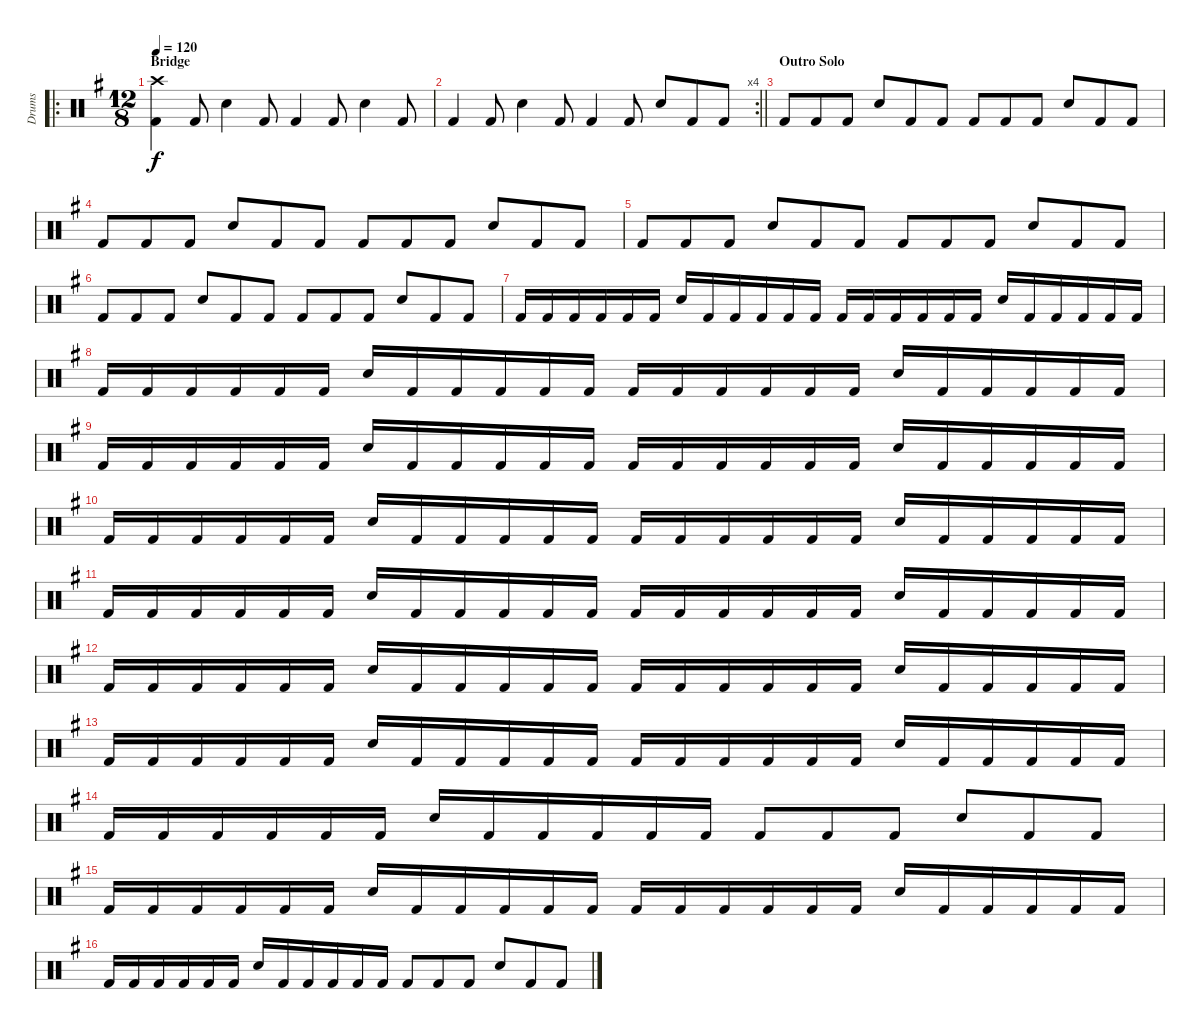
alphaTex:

\track ("Drums" "Drums") {instrument percussion}
\staff {score}
\articulation defaults
\ro
\ts (12 8)
\section ("" "Bridge")
\tempo 120
\clef neutral
\ks eminor
("Kick (hit) 2" "Crash high (hit)").4{dy f} "Kick (hit) 2".8 "Snare (hit) 2".4 "Kick (hit) 2".8 "Kick (hit) 2".4 "Kick (hit) 2".8 "Snare (hit) 2".4 "Kick (hit) 2".8 |
\rc 4
\barLineRight lightlight "Kick (hit) 2".4 "Kick (hit) 2".8 "Snare (hit) 2".4 "Kick (hit) 2".8 "Kick (hit) 2".4 "Kick (hit) 2".8 "Snare (hit) 2".8 "Kick (hit) 2".8 "Kick (hit) 2".8
|
\section ("" "Outro Solo")
"Kick (hit) 2".8 "Kick (hit) 2".8 "Kick (hit) 2".8 "Snare (hit) 2".8 "Kick (hit) 2".8 "Kick (hit) 2".8 "Kick (hit) 2".8 "Kick (hit) 2".8 "Kick (hit) 2".8 "Snare (hit) 2".8 "Kick (hit) 2".8 "Kick (hit) 2".8 |
"Kick (hit) 2".8 "Kick (hit) 2".8 "Kick (hit) 2".8 "Snare (hit) 2".8 "Kick (hit) 2".8 "Kick (hit) 2".8 "Kick (hit) 2".8 "Kick (hit) 2".8 "Kick (hit) 2".8 "Snare (hit) 2".8 "Kick (hit) 2".8 "Kick (hit) 2".8 |
"Kick (hit) 2".8 "Kick (hit) 2".8 "Kick (hit) 2".8 "Snare (hit) 2".8 "Kick (hit) 2".8 "Kick (hit) 2".8 "Kick (hit) 2".8 "Kick (hit) 2".8 "Kick (hit) 2".8 "Snare (hit) 2".8 "Kick (hit) 2".8 "Kick (hit) 2".8 |
"Kick (hit) 2".8 "Kick (hit) 2".8 "Kick (hit) 2".8 "Snare (hit) 2".8 "Kick (hit) 2".8 "Kick (hit) 2".8 "Kick (hit) 2".8 "Kick (hit) 2".8 "Kick (hit) 2".8 "Snare (hit) 2".8 "Kick (hit) 2".8 "Kick (hit) 2".8 |
"Kick (hit) 2".16 "Kick (hit) 2".16 "Kick (hit) 2".16 "Kick (hit) 2".16 "Kick (hit) 2".16 "Kick (hit) 2".16 "Snare (hit) 2".16 "Kick (hit) 2".16 "Kick (hit) 2".16 "Kick (hit) 2".16 "Kick (hit) 2".16 "Kick (hit) 2".16 "Kick (hit) 2".16 "Kick (hit) 2".16 "Kick (hit) 2".16 "Kick (hit) 2".16 "Kick (hit) 2".16 "Kick (hit) 2".16 "Snare (hit) 2".16 "Kick (hit) 2".16 "Kick (hit) 2".16 "Kick (hit) 2".16 "Kick (hit) 2".16 "Kick (hit) 2".16 |
"Kick (hit) 2".16 "Kick (hit) 2".16 "Kick (hit) 2".16 "Kick (hit) 2".16 "Kick (hit) 2".16 "Kick (hit) 2".16 "Snare (hit) 2".16 "Kick (hit) 2".16 "Kick (hit) 2".16 "Kick (hit) 2".16 "Kick (hit) 2".16 "Kick (hit) 2".16 "Kick (hit) 2".16 "Kick (hit) 2".16 "Kick (hit) 2".16 "Kick (hit) 2".16 "Kick (hit) 2".16 "Kick (hit) 2".16 "Snare (hit) 2".16 "Kick (hit) 2".16 "Kick (hit) 2".16 "Kick (hit) 2".16 "Kick (hit) 2".16 "Kick (hit) 2".16 |
"Kick (hit) 2".16 "Kick (hit) 2".16 "Kick (hit) 2".16 "Kick (hit) 2".16 "Kick (hit) 2".16 "Kick (hit) 2".16 "Snare (hit) 2".16 "Kick (hit) 2".16 "Kick (hit) 2".16 "Kick (hit) 2".16 "Kick (hit) 2".16 "Kick (hit) 2".16 "Kick (hit) 2".16 "Kick (hit) 2".16 "Kick (hit) 2".16 "Kick (hit) 2".16 "Kick (hit) 2".16 "Kick (hit) 2".16 "Snare (hit) 2".16 "Kick (hit) 2".16 "Kick (hit) 2".16 "Kick (hit) 2".16 "Kick (hit) 2".16 "Kick (hit) 2".16 |
"Kick (hit) 2".16 "Kick (hit) 2".16 "Kick (hit) 2".16 "Kick (hit) 2".16 "Kick (hit) 2".16 "Kick (hit) 2".16 "Snare (hit) 2".16 "Kick (hit) 2".16 "Kick (hit) 2".16 "Kick (hit) 2".16 "Kick (hit) 2".16 "Kick (hit) 2".16 "Kick (hit) 2".16 "Kick (hit) 2".16 "Kick (hit) 2".16 "Kick (hit) 2".16 "Kick (hit) 2".16 "Kick (hit) 2".16 "Snare (hit) 2".16 "Kick (hit) 2".16 "Kick (hit) 2".16 "Kick (hit) 2".16 "Kick (hit) 2".16 "Kick (hit) 2".16 |
"Kick (hit) 2".16 "Kick (hit) 2".16 "Kick (hit) 2".16 "Kick (hit) 2".16 "Kick (hit) 2".16 "Kick (hit) 2".16 "Snare (hit) 2".16 "Kick (hit) 2".16 "Kick (hit) 2".16 "Kick (hit) 2".16 "Kick (hit) 2".16 "Kick (hit) 2".16 "Kick (hit) 2".16 "Kick (hit) 2".16 "Kick (hit) 2".16 "Kick (hit) 2".16 "Kick (hit) 2".16 "Kick (hit) 2".16 "Snare (hit) 2".16 "Kick (hit) 2".16 "Kick (hit) 2".16 "Kick (hit) 2".16 "Kick (hit) 2".16 "Kick (hit) 2".16 |
"Kick (hit) 2".16 "Kick (hit) 2".16 "Kick (hit) 2".16 "Kick (hit) 2".16 "Kick (hit) 2".16 "Kick (hit) 2".16 "Snare (hit) 2".16 "Kick (hit) 2".16 "Kick (hit) 2".16 "Kick (hit) 2".16 "Kick (hit) 2".16 "Kick (hit) 2".16 "Kick (hit) 2".16 "Kick (hit) 2".16 "Kick (hit) 2".16 "Kick (hit) 2".16 "Kick (hit) 2".16 "Kick (hit) 2".16 "Snare (hit) 2".16 "Kick (hit) 2".16 "Kick (hit) 2".16 "Kick (hit) 2".16 "Kick (hit) 2".16 "Kick (hit) 2".16 |
"Kick (hit) 2".16 "Kick (hit) 2".16 "Kick (hit) 2".16 "Kick (hit) 2".16 "Kick (hit) 2".16 "Kick (hit) 2".16 "Snare (hit) 2".16 "Kick (hit) 2".16 "Kick (hit) 2".16 "Kick (hit) 2".16 "Kick (hit) 2".16 "Kick (hit) 2".16 "Kick (hit) 2".16 "Kick (hit) 2".16 "Kick (hit) 2".16 "Kick (hit) 2".16 "Kick (hit) 2".16 "Kick (hit) 2".16 "Snare (hit) 2".16 "Kick (hit) 2".16 "Kick (hit) 2".16 "Kick (hit) 2".16 "Kick (hit) 2".16 "Kick (hit) 2".16 |
"Kick (hit) 2".16 "Kick (hit) 2".16 "Kick (hit) 2".16 "Kick (hit) 2".16 "Kick (hit) 2".16 "Kick (hit) 2".16 "Snare (hit) 2".16 "Kick (hit) 2".16 "Kick (hit) 2".16 "Kick (hit) 2".16 "Kick (hit) 2".16 "Kick (hit) 2".16 "Kick (hit) 2".8 "Kick (hit) 2".8 "Kick (hit) 2".8 "Snare (hit) 2".8 "Kick (hit) 2".8 "Kick (hit) 2".8 |
"Kick (hit) 2".16 "Kick (hit) 2".16 "Kick (hit) 2".16 "Kick (hit) 2".16 "Kick (hit) 2".16 "Kick (hit) 2".16 "Snare (hit) 2".16 "Kick (hit) 2".16 "Kick (hit) 2".16 "Kick (hit) 2".16 "Kick (hit) 2".16 "Kick (hit) 2".16 "Kick (hit) 2".16 "Kick (hit) 2".16 "Kick (hit) 2".16 "Kick (hit) 2".16 "Kick (hit) 2".16 "Kick (hit) 2".16 "Snare (hit) 2".16 "Kick (hit) 2".16 "Kick (hit) 2".16 "Kick (hit) 2".16 "Kick (hit) 2".16 "Kick (hit) 2".16 |
"Kick (hit) 2".16 "Kick (hit) 2".16 "Kick (hit) 2".16 "Kick (hit) 2".16 "Kick (hit) 2".16 "Kick (hit) 2".16 "Snare (hit) 2".16 "Kick (hit) 2".16 "Kick (hit) 2".16 "Kick (hit) 2".16 "Kick (hit) 2".16 "Kick (hit) 2".16 "Kick (hit) 2".8 "Kick (hit) 2".8 "Kick (hit) 2".8 "Snare (hit) 2".8 "Kick (hit) 2".8 "Kick (hit) 2".8
